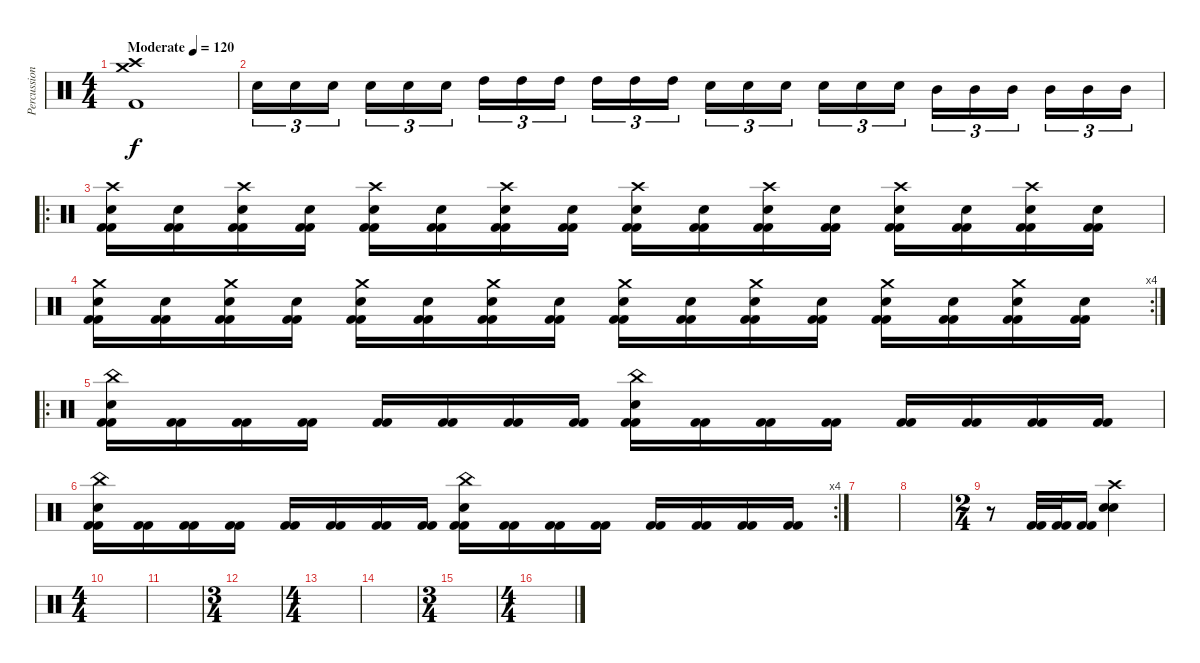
\track ("Percussion" "Percussion") {instrument percussion}
\staff {score}
\articulation defaults
\ts (4 4)
\tempo (120 "Moderate")
\clef neutral
\ks c
("Crash high (hit)" "Crash medium (hit)" "Kick (hit) 2").1{dy f} |
"Electric Snare (hit)".16{tu (3 2)} "Electric Snare (hit)".16{tu (3 2)} "Electric Snare (hit)".16{tu (3 2) beam splitsecondary} "Electric Snare (hit)".16{tu (3 2)} "Electric Snare (hit)".16{tu (3 2)} "Electric Snare (hit)".16{tu (3 2)} "High Tom (hit)".16{tu (3 2)} "High Tom (hit)".16{tu (3 2)} "High Tom (hit)".16{tu (3 2) beam splitsecondary} "High Tom (hit)".16{tu (3 2)} "High Tom (hit)".16{tu (3 2)} "High Tom (hit)".16{tu (3 2)} "Electric Snare (hit)".16{tu (3 2)} "Electric Snare (hit)".16{tu (3 2)} "Electric Snare (hit)".16{tu (3 2) beam splitsecondary} "Electric Snare (hit)".16{tu (3 2)} "Electric Snare (hit)".16{tu (3 2)} "Electric Snare (hit)".16{tu (3 2)} "Mid Tom (hit)".16{tu (3 2)} "Mid Tom (hit)".16{tu (3 2)} "Mid Tom (hit)".16{tu (3 2) beam splitsecondary} "Mid Tom (hit)".16{tu (3 2)} "Mid Tom (hit)".16{tu (3 2)} "Mid Tom (hit)".16{tu (3 2)} |
\ro
("Crash high (hit)" "Electric Snare (hit)" "Kick (hit) 2" "Kick (hit) 2").16 ("Electric Snare (hit)" "Kick (hit) 2" "Kick (hit) 2").16 ("Crash high (hit)" "Electric Snare (hit)" "Kick (hit) 2" "Kick (hit) 2").16 ("Electric Snare (hit)" "Kick (hit) 2" "Kick (hit) 2").16 ("Crash high (hit)" "Electric Snare (hit)" "Kick (hit) 2" "Kick (hit) 2").16 ("Electric Snare (hit)" "Kick (hit) 2" "Kick (hit) 2").16 ("Crash high (hit)" "Electric Snare (hit)" "Kick (hit) 2" "Kick (hit) 2").16 ("Electric Snare (hit)" "Kick (hit) 2" "Kick (hit) 2").16 ("Crash high (hit)" "Electric Snare (hit)" "Kick (hit) 2" "Kick (hit) 2").16 ("Electric Snare (hit)" "Kick (hit) 2" "Kick (hit) 2").16 ("Crash high (hit)" "Electric Snare (hit)" "Kick (hit) 2" "Kick (hit) 2").16 ("Electric Snare (hit)" "Kick (hit) 2" "Kick (hit) 2").16 ("Crash high (hit)" "Electric Snare (hit)" "Kick (hit) 2" "Kick (hit) 2").16 ("Electric Snare (hit)" "Kick (hit) 2" "Kick (hit) 2").16 ("Crash high (hit)" "Electric Snare (hit)" "Kick (hit) 2" "Kick (hit) 2").16 ("Electric Snare (hit)" "Kick (hit) 2" "Kick (hit) 2").16 |
\rc 4
("Crash medium (hit)" "Electric Snare (hit)" "Kick (hit) 2" "Kick (hit) 2").16 ("Electric Snare (hit)" "Kick (hit) 2" "Kick (hit) 2").16 ("Crash medium (hit)" "Electric Snare (hit)" "Kick (hit) 2" "Kick (hit) 2").16 ("Electric Snare (hit)" "Kick (hit) 2" "Kick (hit) 2").16 ("Crash medium (hit)" "Electric Snare (hit)" "Kick (hit) 2" "Kick (hit) 2").16 ("Electric Snare (hit)" "Kick (hit) 2" "Kick (hit) 2").16 ("Crash medium (hit)" "Electric Snare (hit)" "Kick (hit) 2" "Kick (hit) 2").16 ("Electric Snare (hit)" "Kick (hit) 2" "Kick (hit) 2").16 ("Crash medium (hit)" "Electric Snare (hit)" "Kick (hit) 2" "Kick (hit) 2").16 ("Electric Snare (hit)" "Kick (hit) 2" "Kick (hit) 2").16 ("Crash medium (hit)" "Electric Snare (hit)" "Kick (hit) 2" "Kick (hit) 2").16 ("Electric Snare (hit)" "Kick (hit) 2" "Kick (hit) 2").16 ("Crash medium (hit)" "Electric Snare (hit)" "Kick (hit) 2" "Kick (hit) 2").16 ("Electric Snare (hit)" "Kick (hit) 2" "Kick (hit) 2").16 ("Crash medium (hit)" "Electric Snare (hit)" "Kick (hit) 2" "Kick (hit) 2").16 ("Electric Snare (hit)" "Kick (hit) 2" "Kick (hit) 2").16 |
\ro
("China (hit)" "Electric Snare (hit)" "Kick (hit) 2" "Kick (hit) 2").16 ("Kick (hit) 2" "Kick (hit) 2").16 ("Kick (hit) 2" "Kick (hit) 2").16 ("Kick (hit) 2" "Kick (hit) 2").16 ("Kick (hit) 2" "Kick (hit) 2").16 ("Kick (hit) 2" "Kick (hit) 2").16 ("Kick (hit) 2" "Kick (hit) 2").16 ("Kick (hit) 2" "Kick (hit) 2").16 ("China (hit)" "Electric Snare (hit)" "Kick (hit) 2" "Kick (hit) 2").16 ("Kick (hit) 2" "Kick (hit) 2").16 ("Kick (hit) 2" "Kick (hit) 2").16 ("Kick (hit) 2" "Kick (hit) 2").16 ("Kick (hit) 2" "Kick (hit) 2").16 ("Kick (hit) 2" "Kick (hit) 2").16 ("Kick (hit) 2" "Kick (hit) 2").16 ("Kick (hit) 2" "Kick (hit) 2").16 |
\rc 4
("China (hit)" "Electric Snare (hit)" "Kick (hit) 2" "Kick (hit) 2").16 ("Kick (hit) 2" "Kick (hit) 2").16 ("Kick (hit) 2" "Kick (hit) 2").16 ("Kick (hit) 2" "Kick (hit) 2").16 ("Kick (hit) 2" "Kick (hit) 2").16 ("Kick (hit) 2" "Kick (hit) 2").16 ("Kick (hit) 2" "Kick (hit) 2").16 ("Kick (hit) 2" "Kick (hit) 2").16 ("China (hit)" "Electric Snare (hit)" "Kick (hit) 2" "Kick (hit) 2").16 ("Kick (hit) 2" "Kick (hit) 2").16 ("Kick (hit) 2" "Kick (hit) 2").16 ("Kick (hit) 2" "Kick (hit) 2").16 ("Kick (hit) 2" "Kick (hit) 2").16 ("Kick (hit) 2" "Kick (hit) 2").16 ("Kick (hit) 2" "Kick (hit) 2").16 ("Kick (hit) 2" "Kick (hit) 2").16 |
|
|
\ts (2 4)
r.8 ("Kick (hit) 2" "Kick (hit) 2").32 ("Kick (hit) 2" "Kick (hit) 2").32 ("Kick (hit) 2" "Kick (hit) 2").16 ("Crash high (hit)" "Electric Snare (hit)" "Electric Snare (hit)").4 |
\ts (4 4)
|
|
\ts (3 4)
|
\ts (4 4)
|
|
\ts (3 4)
|
\ts (4 4)
